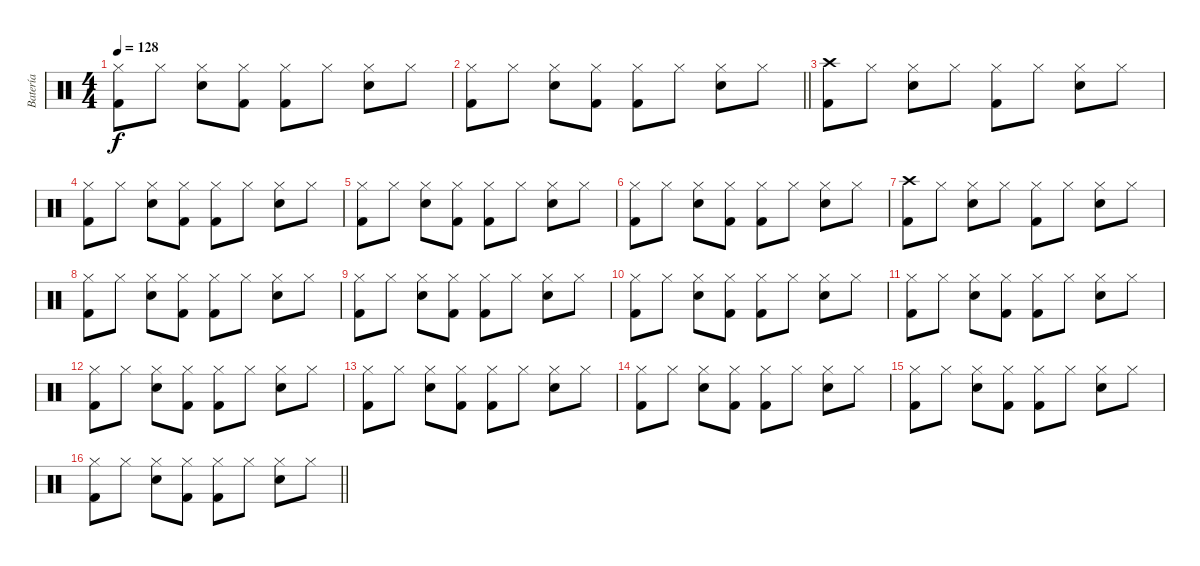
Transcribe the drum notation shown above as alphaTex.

\track ("Batería" "Batería") {instrument percussion}
\staff {score}
\articulation defaults
\ts (4 4)
\tempo 128
\clef neutral
\ks c
("Hi-Hat (closed)" "Kick (hit) 2").8{dy f} "Hi-Hat (closed)".8 ("Hi-Hat (closed)" "Electric Snare (hit)").8 ("Hi-Hat (closed)" "Kick (hit) 2").8 ("Hi-Hat (closed)" "Kick (hit) 2").8 "Hi-Hat (closed)".8 ("Hi-Hat (closed)" "Electric Snare (hit)").8 "Hi-Hat (closed)".8 |
\barLineRight lightlight
("Hi-Hat (closed)" "Kick (hit) 2").8 "Hi-Hat (closed)".8 ("Hi-Hat (closed)" "Electric Snare (hit)").8 ("Hi-Hat (closed)" "Kick (hit) 2").8 ("Hi-Hat (closed)" "Kick (hit) 2").8 "Hi-Hat (closed)".8 ("Hi-Hat (closed)" "Electric Snare (hit)").8 "Hi-Hat (closed)".8 |
("Kick (hit) 2" "Crash high (hit)").8 "Hi-Hat (closed)".8 ("Hi-Hat (closed)" "Electric Snare (hit)").8 "Hi-Hat (closed)".8 ("Hi-Hat (closed)" "Kick (hit) 2").8 "Hi-Hat (closed)".8 ("Hi-Hat (closed)" "Electric Snare (hit)").8 "Hi-Hat (closed)".8 |
("Hi-Hat (closed)" "Kick (hit) 2").8 "Hi-Hat (closed)".8 ("Hi-Hat (closed)" "Electric Snare (hit)").8 ("Hi-Hat (closed)" "Kick (hit) 2").8 ("Hi-Hat (closed)" "Kick (hit) 2").8 "Hi-Hat (closed)".8 ("Hi-Hat (closed)" "Electric Snare (hit)").8 "Hi-Hat (closed)".8 |
("Hi-Hat (closed)" "Kick (hit) 2").8 "Hi-Hat (closed)".8 ("Hi-Hat (closed)" "Electric Snare (hit)").8 ("Hi-Hat (closed)" "Kick (hit) 2").8 ("Hi-Hat (closed)" "Kick (hit) 2").8 "Hi-Hat (closed)".8 ("Hi-Hat (closed)" "Electric Snare (hit)").8 "Hi-Hat (closed)".8 |
("Hi-Hat (closed)" "Kick (hit) 2").8 "Hi-Hat (closed)".8 ("Hi-Hat (closed)" "Electric Snare (hit)").8 ("Hi-Hat (closed)" "Kick (hit) 2").8 ("Hi-Hat (closed)" "Kick (hit) 2").8 "Hi-Hat (closed)".8 ("Hi-Hat (closed)" "Electric Snare (hit)").8 "Hi-Hat (closed)".8 |
("Kick (hit) 2" "Crash high (hit)").8 "Hi-Hat (closed)".8 ("Hi-Hat (closed)" "Electric Snare (hit)").8 "Hi-Hat (closed)".8 ("Hi-Hat (closed)" "Kick (hit) 2").8 "Hi-Hat (closed)".8 ("Hi-Hat (closed)" "Electric Snare (hit)").8 "Hi-Hat (closed)".8 |
("Hi-Hat (closed)" "Kick (hit) 2").8 "Hi-Hat (closed)".8 ("Hi-Hat (closed)" "Electric Snare (hit)").8 ("Hi-Hat (closed)" "Kick (hit) 2").8 ("Hi-Hat (closed)" "Kick (hit) 2").8 "Hi-Hat (closed)".8 ("Hi-Hat (closed)" "Electric Snare (hit)").8 "Hi-Hat (closed)".8 |
("Hi-Hat (closed)" "Kick (hit) 2").8 "Hi-Hat (closed)".8 ("Hi-Hat (closed)" "Electric Snare (hit)").8 ("Hi-Hat (closed)" "Kick (hit) 2").8 ("Hi-Hat (closed)" "Kick (hit) 2").8 "Hi-Hat (closed)".8 ("Hi-Hat (closed)" "Electric Snare (hit)").8 "Hi-Hat (closed)".8 |
("Hi-Hat (closed)" "Kick (hit) 2").8 "Hi-Hat (closed)".8 ("Hi-Hat (closed)" "Electric Snare (hit)").8 ("Hi-Hat (closed)" "Kick (hit) 2").8 ("Hi-Hat (closed)" "Kick (hit) 2").8 "Hi-Hat (closed)".8 ("Hi-Hat (closed)" "Electric Snare (hit)").8 "Hi-Hat (closed)".8 |
("Hi-Hat (closed)" "Kick (hit) 2").8 "Hi-Hat (closed)".8 ("Hi-Hat (closed)" "Electric Snare (hit)").8 ("Hi-Hat (closed)" "Kick (hit) 2").8 ("Hi-Hat (closed)" "Kick (hit) 2").8 "Hi-Hat (closed)".8 ("Hi-Hat (closed)" "Electric Snare (hit)").8 "Hi-Hat (closed)".8 |
("Hi-Hat (closed)" "Kick (hit) 2").8 "Hi-Hat (closed)".8 ("Hi-Hat (closed)" "Electric Snare (hit)").8 ("Hi-Hat (closed)" "Kick (hit) 2").8 ("Hi-Hat (closed)" "Kick (hit) 2").8 "Hi-Hat (closed)".8 ("Hi-Hat (closed)" "Electric Snare (hit)").8 "Hi-Hat (closed)".8 |
("Hi-Hat (closed)" "Kick (hit) 2").8 "Hi-Hat (closed)".8 ("Hi-Hat (closed)" "Electric Snare (hit)").8 ("Hi-Hat (closed)" "Kick (hit) 2").8 ("Hi-Hat (closed)" "Kick (hit) 2").8 "Hi-Hat (closed)".8 ("Hi-Hat (closed)" "Electric Snare (hit)").8 "Hi-Hat (closed)".8 |
("Hi-Hat (closed)" "Kick (hit) 2").8 "Hi-Hat (closed)".8 ("Hi-Hat (closed)" "Electric Snare (hit)").8 ("Hi-Hat (closed)" "Kick (hit) 2").8 ("Hi-Hat (closed)" "Kick (hit) 2").8 "Hi-Hat (closed)".8 ("Hi-Hat (closed)" "Electric Snare (hit)").8 "Hi-Hat (closed)".8 |
("Hi-Hat (closed)" "Kick (hit) 2").8 "Hi-Hat (closed)".8 ("Hi-Hat (closed)" "Electric Snare (hit)").8 ("Hi-Hat (closed)" "Kick (hit) 2").8 ("Hi-Hat (closed)" "Kick (hit) 2").8 "Hi-Hat (closed)".8 ("Hi-Hat (closed)" "Electric Snare (hit)").8 "Hi-Hat (closed)".8 |
\barLineRight lightlight
("Hi-Hat (closed)" "Kick (hit) 2").8 "Hi-Hat (closed)".8 ("Hi-Hat (closed)" "Electric Snare (hit)").8 ("Hi-Hat (closed)" "Kick (hit) 2").8 ("Hi-Hat (closed)" "Kick (hit) 2").8 "Hi-Hat (closed)".8 ("Hi-Hat (closed)" "Electric Snare (hit)").8 "Hi-Hat (closed)".8
